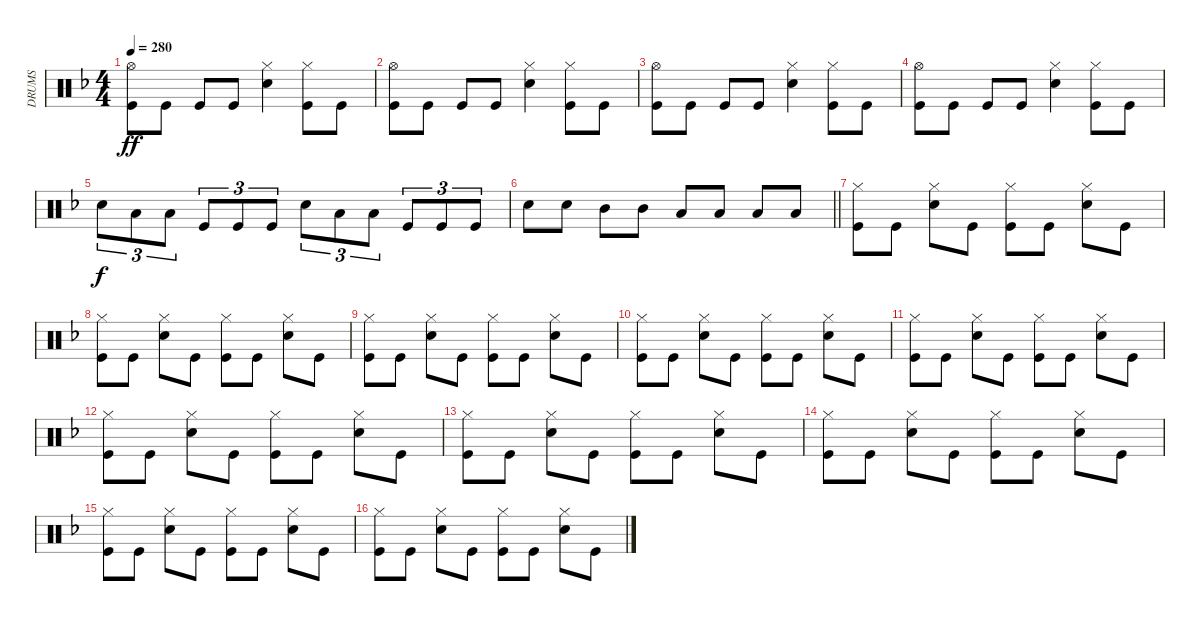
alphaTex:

\track ("DRUMS" "DRUMS") {instrument percussion}
\staff {score}
\articulation defaults
\ts (4 4)
\tempo 280
\clef neutral
\ks dminor
("Hi-Hat (open)" "Kick (hit)").8{dy ff} "Kick (hit)".8 "Kick (hit)".8 "Kick (hit)".8 ("Hi-Hat (closed)" "Snare (hit) 2").4 ("Hi-Hat (closed)" "Kick (hit)").8 "Kick (hit)".8 |
("Hi-Hat (open)" "Kick (hit)").8 "Kick (hit)".8 "Kick (hit)".8 "Kick (hit)".8 ("Hi-Hat (closed)" "Snare (hit) 2").4 ("Hi-Hat (closed)" "Kick (hit)").8 "Kick (hit)".8 |
("Hi-Hat (open)" "Kick (hit)").8 "Kick (hit)".8 "Kick (hit)".8 "Kick (hit)".8 ("Hi-Hat (closed)" "Snare (hit) 2").4 ("Hi-Hat (closed)" "Kick (hit)").8 "Kick (hit)".8 |
("Hi-Hat (open)" "Kick (hit)").8 "Kick (hit)".8 "Kick (hit)".8 "Kick (hit)".8 ("Hi-Hat (closed)" "Snare (hit) 2").4 ("Hi-Hat (closed)" "Kick (hit)").8 "Kick (hit)".8 |
"Snare (hit) 2".8{tu (3 2) dy f} "Low Tom (hit)".8{tu (3 2)} "Low Tom (hit)".8{tu (3 2)} "Kick (hit)".8{tu (3 2)} "Kick (hit)".8{tu (3 2)} "Kick (hit)".8{tu (3 2)} "Snare (hit) 2".8{tu (3 2)} "Low Tom (hit)".8{tu (3 2)} "Low Tom (hit)".8{tu (3 2)} "Kick (hit)".8{tu (3 2)} "Kick (hit)".8{tu (3 2)} "Kick (hit)".8{tu (3 2)} |
\barLineRight lightlight "Snare (hit) 2".8 "Snare (hit) 2".8 "Mid Tom (hit)".8 "Mid Tom (hit)".8 "Low Tom (hit)".8 "Low Tom (hit)".8 "Low Tom (hit)".8 "Low Tom (hit)".8
|
("Hi-Hat (closed)" "Kick (hit)").8 "Kick (hit)".8 ("Hi-Hat (closed)" "Snare (hit) 2").8 "Kick (hit)".8 ("Hi-Hat (closed)" "Kick (hit)").8 "Kick (hit)".8 ("Hi-Hat (closed)" "Snare (hit) 2").8 "Kick (hit)".8 |
("Hi-Hat (closed)" "Kick (hit)").8 "Kick (hit)".8 ("Hi-Hat (closed)" "Snare (hit) 2").8 "Kick (hit)".8 ("Hi-Hat (closed)" "Kick (hit)").8 "Kick (hit)".8 ("Hi-Hat (closed)" "Snare (hit) 2").8 "Kick (hit)".8 |
("Hi-Hat (closed)" "Kick (hit)").8 "Kick (hit)".8 ("Hi-Hat (closed)" "Snare (hit) 2").8 "Kick (hit)".8 ("Hi-Hat (closed)" "Kick (hit)").8 "Kick (hit)".8 ("Hi-Hat (closed)" "Snare (hit) 2").8 "Kick (hit)".8 |
("Hi-Hat (closed)" "Kick (hit)").8 "Kick (hit)".8 ("Hi-Hat (closed)" "Snare (hit) 2").8 "Kick (hit)".8 ("Hi-Hat (closed)" "Kick (hit)").8 "Kick (hit)".8 ("Hi-Hat (closed)" "Snare (hit) 2").8 "Kick (hit)".8 |
("Hi-Hat (closed)" "Kick (hit)").8 "Kick (hit)".8 ("Hi-Hat (closed)" "Snare (hit) 2").8 "Kick (hit)".8 ("Hi-Hat (closed)" "Kick (hit)").8 "Kick (hit)".8 ("Hi-Hat (closed)" "Snare (hit) 2").8 "Kick (hit)".8 |
("Hi-Hat (closed)" "Kick (hit)").8 "Kick (hit)".8 ("Hi-Hat (closed)" "Snare (hit) 2").8 "Kick (hit)".8 ("Hi-Hat (closed)" "Kick (hit)").8 "Kick (hit)".8 ("Hi-Hat (closed)" "Snare (hit) 2").8 "Kick (hit)".8 |
("Hi-Hat (closed)" "Kick (hit)").8 "Kick (hit)".8 ("Hi-Hat (closed)" "Snare (hit) 2").8 "Kick (hit)".8 ("Hi-Hat (closed)" "Kick (hit)").8 "Kick (hit)".8 ("Hi-Hat (closed)" "Snare (hit) 2").8 "Kick (hit)".8 |
("Hi-Hat (closed)" "Kick (hit)").8 "Kick (hit)".8 ("Hi-Hat (closed)" "Snare (hit) 2").8 "Kick (hit)".8 ("Hi-Hat (closed)" "Kick (hit)").8 "Kick (hit)".8 ("Hi-Hat (closed)" "Snare (hit) 2").8 "Kick (hit)".8 |
("Hi-Hat (closed)" "Kick (hit)").8 "Kick (hit)".8 ("Hi-Hat (closed)" "Snare (hit) 2").8 "Kick (hit)".8 ("Hi-Hat (closed)" "Kick (hit)").8 "Kick (hit)".8 ("Hi-Hat (closed)" "Snare (hit) 2").8 "Kick (hit)".8 |
("Hi-Hat (closed)" "Kick (hit)").8 "Kick (hit)".8 ("Hi-Hat (closed)" "Snare (hit) 2").8 "Kick (hit)".8 ("Hi-Hat (closed)" "Kick (hit)").8 "Kick (hit)".8 ("Hi-Hat (closed)" "Snare (hit) 2").8 "Kick (hit)".8
